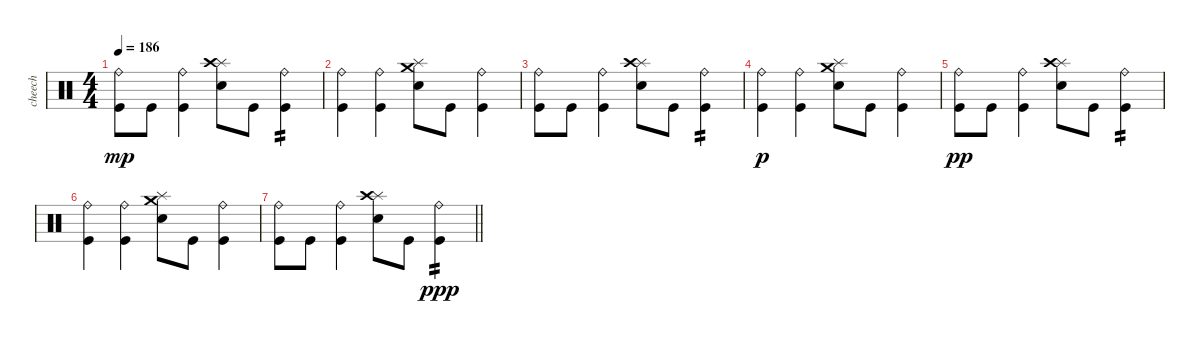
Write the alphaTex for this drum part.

\track ("cheech" "cheech") {instrument percussion}
\staff {score}
\articulation defaults
\ts (4 4)
\tempo 186
\clef neutral
\ks c
("Ride (bell)" "Kick (hit)").8{dy mp} "Kick (hit)".8 ("Ride (bell)" "Kick (hit)").4 ("Splash (hit)" "Crash high (hit)" "Electric Snare (hit)").8 "Kick (hit)".8 ("Ride (bell)" "Kick (hit)").4{tp 2} |
("Ride (bell)" "Kick (hit)").4 ("Ride (bell)" "Kick (hit)").4 ("Splash (hit)" "Crash medium (hit)" "Electric Snare (hit)").8 "Kick (hit)".8 ("Ride (bell)" "Kick (hit)").4 |
("Ride (bell)" "Kick (hit)").8 "Kick (hit)".8 ("Ride (bell)" "Kick (hit)").4 ("Splash (hit)" "Crash high (hit)" "Electric Snare (hit)").8 "Kick (hit)".8 ("Ride (bell)" "Kick (hit)").4{tp 2} |
("Ride (bell)" "Kick (hit)").4{dy p} ("Ride (bell)" "Kick (hit)").4 ("Splash (hit)" "Crash medium (hit)" "Electric Snare (hit)").8 "Kick (hit)".8 ("Ride (bell)" "Kick (hit)").4 |
("Ride (bell)" "Kick (hit)").8{dy pp} "Kick (hit)".8 ("Ride (bell)" "Kick (hit)").4 ("Splash (hit)" "Crash high (hit)" "Electric Snare (hit)").8 "Kick (hit)".8 ("Ride (bell)" "Kick (hit)").4{tp 2} |
("Ride (bell)" "Kick (hit)").4 ("Ride (bell)" "Kick (hit)").4 ("Splash (hit)" "Crash medium (hit)" "Electric Snare (hit)").8 "Kick (hit)".8 ("Ride (bell)" "Kick (hit)").4 |
\barLineRight lightlight
("Ride (bell)" "Kick (hit)").8 "Kick (hit)".8 ("Ride (bell)" "Kick (hit)").4 ("Splash (hit)" "Crash high (hit)" "Electric Snare (hit)").8 "Kick (hit)".8 ("Ride (bell)" "Kick (hit)").4{tp 2 dy ppp}
